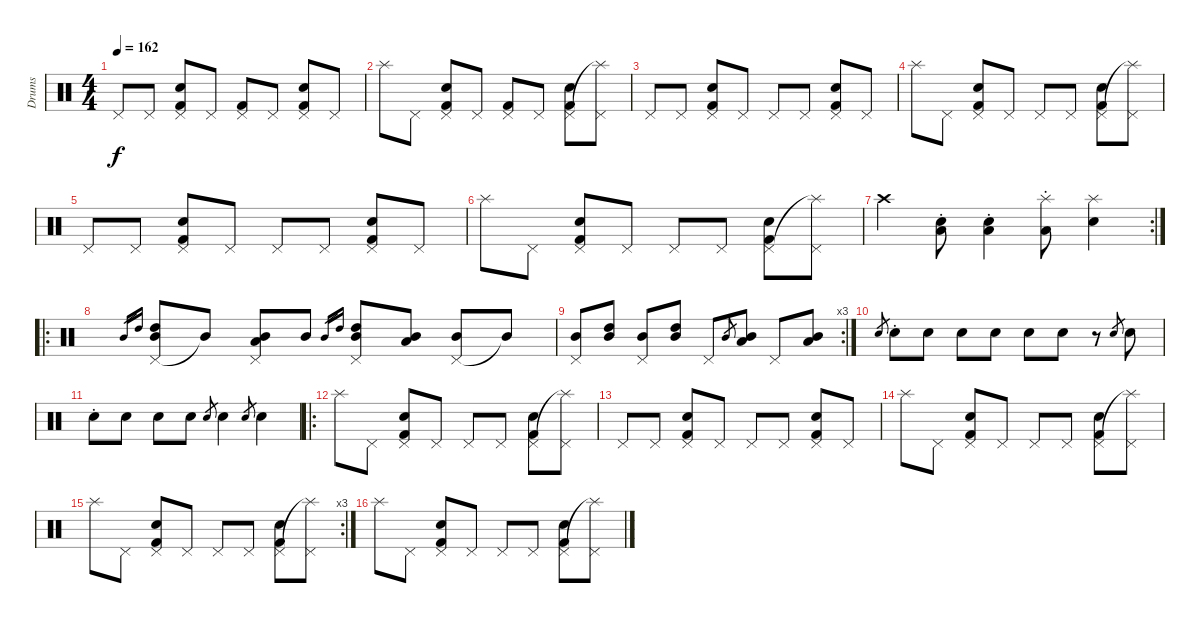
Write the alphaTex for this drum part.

\track ("Drums" "Drums") {instrument percussion}
\staff {score}
\articulation defaults
\ts (4 4)
\tempo 162
\clef neutral
\ks c "Pedal Hi-Hat (hit)".8{dy f} "Pedal Hi-Hat (hit)".8
("Pedal Hi-Hat (hit)" "Snare (hit) 2" "Kick (hit) 2").8 "Pedal Hi-Hat (hit)".8 ("Pedal Hi-Hat (hit)" "Kick (hit) 2").8 "Pedal Hi-Hat (hit)".8 ("Pedal Hi-Hat (hit)" "Snare (hit) 2" "Kick (hit) 2").8 "Pedal Hi-Hat (hit)".8 |
"Splash (hit)".8 "Pedal Hi-Hat (hit)".8 ("Pedal Hi-Hat (hit)" "Snare (hit) 2" "Kick (hit) 2").8 "Pedal Hi-Hat (hit)".8 ("Pedal Hi-Hat (hit)" "Kick (hit) 2").8 "Pedal Hi-Hat (hit)".8 ("Pedal Hi-Hat (hit)" "Snare (hit) 2" "Kick (hit) 2").8 ("Splash (hit)"{t} "Pedal Hi-Hat (hit)").8 |
"Pedal Hi-Hat (hit)".8 "Pedal Hi-Hat (hit)".8 ("Pedal Hi-Hat (hit)" "Snare (hit) 2" "Kick (hit) 2").8 "Pedal Hi-Hat (hit)".8 "Pedal Hi-Hat (hit)".8 "Pedal Hi-Hat (hit)".8 ("Pedal Hi-Hat (hit)" "Snare (hit) 2" "Kick (hit) 2").8 "Pedal Hi-Hat (hit)".8 |
"Splash (hit)".8 "Pedal Hi-Hat (hit)".8 ("Pedal Hi-Hat (hit)" "Snare (hit) 2" "Kick (hit) 2").8 "Pedal Hi-Hat (hit)".8 "Pedal Hi-Hat (hit)".8 "Pedal Hi-Hat (hit)".8 ("Pedal Hi-Hat (hit)" "Snare (hit) 2" "Kick (hit) 2").8 ("Splash (hit)"{t} "Pedal Hi-Hat (hit)").8 |
"Pedal Hi-Hat (hit)".8 "Pedal Hi-Hat (hit)".8 ("Pedal Hi-Hat (hit)" "Snare (hit) 2" "Kick (hit) 2").8 "Pedal Hi-Hat (hit)".8 "Pedal Hi-Hat (hit)".8 "Pedal Hi-Hat (hit)".8 ("Pedal Hi-Hat (hit)" "Snare (hit) 2" "Kick (hit) 2").8 "Pedal Hi-Hat (hit)".8 |
"Splash (hit)".8 "Pedal Hi-Hat (hit)".8 ("Pedal Hi-Hat (hit)" "Snare (hit) 2" "Kick (hit) 2").8 "Pedal Hi-Hat (hit)".8 "Pedal Hi-Hat (hit)".8 "Pedal Hi-Hat (hit)".8 ("Pedal Hi-Hat (hit)" "Snare (hit) 2" "Kick (hit) 2").8 ("Splash (hit)"{t} "Pedal Hi-Hat (hit)").8 |
\rc 2 "Crash high (hit)".4
("Low Floor Tom (hit)"{st} "Snare (hit) 2").8 ("Low Tom (hit)"{st} "Snare (hit) 2").4 ("Splash (hit)" "Low Floor Tom (hit)"{st}).8 ("Splash (hit)" "Snare (hit) 2").4 |
\ro "Mid Tom (hit)".16{gr} "High Tom (hit)".16{gr}
("Pedal Hi-Hat (hit)" "Mid Tom (hit)" "High Tom (hit)").8 "Mid Tom (hit)"{t}.8 ("Pedal Hi-Hat (hit)" "Mid Tom (hit)" "Low Tom (hit)").8 "Mid Tom (hit)".8 "Mid Tom (hit)".16{gr} "High Tom (hit)".16{gr} ("Pedal Hi-Hat (hit)" "Mid Tom (hit)" "High Tom (hit)").8 ("Mid Tom (hit)" "Low Tom (hit)").8 ("Pedal Hi-Hat (hit)" "Mid Tom (hit)").8 "Mid Tom (hit)"{t}.8 |
\rc 3
("Pedal Hi-Hat (hit)" "Mid Tom (hit)").8 ("Mid Tom (hit)" "High Tom (hit)").8 ("Pedal Hi-Hat (hit)" "Mid Tom (hit)").8 ("Mid Tom (hit)" "High Tom (hit)").8 "Pedal Hi-Hat (hit)".8 "Mid Tom (hit)".8{gr} ("Mid Tom (hit)" "Low Tom (hit)").8 "Pedal Hi-Hat (hit)".8 ("Mid Tom (hit)" "Low Tom (hit)").8 |
"Snare (hit) 2".8{gr} "Snare (hit) 2"{st}.8 "Snare (hit) 2".8 "Snare (hit) 2".8 "Snare (hit) 2".8 "Snare (hit) 2".8 "Snare (hit) 2".8 r.8 "Snare (hit) 2".8{gr} "Snare (hit) 2".8 |
"Snare (hit) 2"{st}.8 "Snare (hit) 2".8 "Snare (hit) 2".8 "Snare (hit) 2".8 "Snare (hit) 2".8{gr} "Snare (hit) 2".4 "Snare (hit) 2".8{gr} "Snare (hit) 2".4 |
\ro "Splash (hit)".8 "Pedal Hi-Hat (hit)".8
("Pedal Hi-Hat (hit)" "Snare (hit) 2" "Kick (hit) 2").8 "Pedal Hi-Hat (hit)".8 "Pedal Hi-Hat (hit)".8 "Pedal Hi-Hat (hit)".8 ("Pedal Hi-Hat (hit)" "Snare (hit) 2" "Kick (hit) 2").8 ("Splash (hit)"{t} "Pedal Hi-Hat (hit)").8 |
"Pedal Hi-Hat (hit)".8 "Pedal Hi-Hat (hit)".8 ("Pedal Hi-Hat (hit)" "Snare (hit) 2" "Kick (hit) 2").8 "Pedal Hi-Hat (hit)".8 "Pedal Hi-Hat (hit)".8 "Pedal Hi-Hat (hit)".8 ("Pedal Hi-Hat (hit)" "Snare (hit) 2" "Kick (hit) 2").8 "Pedal Hi-Hat (hit)".8 |
"Splash (hit)".8 "Pedal Hi-Hat (hit)".8 ("Pedal Hi-Hat (hit)" "Snare (hit) 2" "Kick (hit) 2").8 "Pedal Hi-Hat (hit)".8 "Pedal Hi-Hat (hit)".8 "Pedal Hi-Hat (hit)".8 ("Pedal Hi-Hat (hit)" "Snare (hit) 2" "Kick (hit) 2").8 ("Splash (hit)"{t} "Pedal Hi-Hat (hit)").8 |
\rc 3 "Splash (hit)".8 "Pedal Hi-Hat (hit)".8
("Pedal Hi-Hat (hit)" "Snare (hit) 2" "Kick (hit) 2").8 "Pedal Hi-Hat (hit)".8 "Pedal Hi-Hat (hit)".8 "Pedal Hi-Hat (hit)".8 ("Pedal Hi-Hat (hit)" "Snare (hit) 2" "Kick (hit) 2").8 ("Splash (hit)"{t} "Pedal Hi-Hat (hit)").8 |
"Splash (hit)".8 "Pedal Hi-Hat (hit)".8 ("Pedal Hi-Hat (hit)" "Snare (hit) 2" "Kick (hit) 2").8 "Pedal Hi-Hat (hit)".8 "Pedal Hi-Hat (hit)".8 "Pedal Hi-Hat (hit)".8 ("Pedal Hi-Hat (hit)" "Snare (hit) 2" "Kick (hit) 2").8 ("Splash (hit)"{t} "Pedal Hi-Hat (hit)").8
